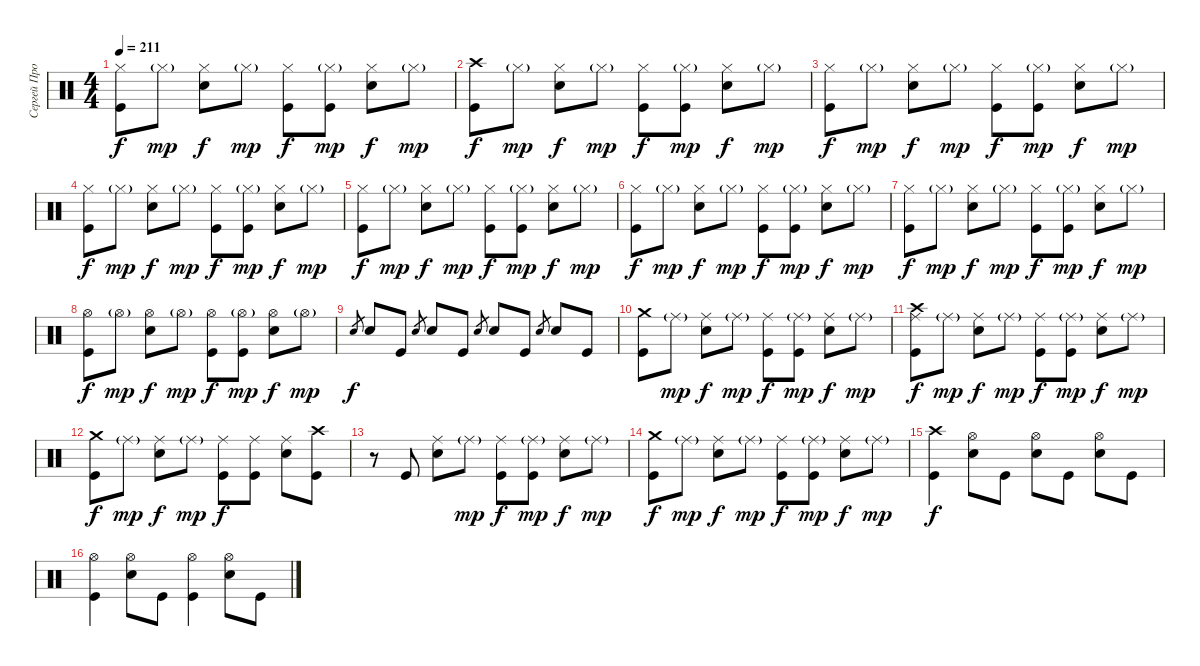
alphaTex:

\track ("Сергей Прокофьев" "Сергей Про") {instrument percussion}
\staff {score}
\articulation defaults
\ts (4 4)
\tempo 211
\clef neutral
\ks c
("Hi-Hat (closed)" "Kick (hit)").8{dy f} "Hi-Hat (closed)"{g}.8{dy mp} ("Hi-Hat (closed)" "Electric Snare (hit)").8{dy f} "Hi-Hat (closed)"{g}.8{dy mp} ("Hi-Hat (closed)" "Kick (hit)").8{dy f} ("Hi-Hat (closed)"{g} "Kick (hit)").8{dy mp} ("Hi-Hat (closed)" "Electric Snare (hit)").8{dy f} "Hi-Hat (closed)"{g}.8{dy mp} |
("Crash high (hit)" "Kick (hit)").8{dy f} "Hi-Hat (closed)"{g}.8{dy mp} ("Hi-Hat (closed)" "Electric Snare (hit)").8{dy f} "Hi-Hat (closed)"{g}.8{dy mp} ("Hi-Hat (closed)" "Kick (hit)").8{dy f} ("Hi-Hat (closed)"{g} "Kick (hit)").8{dy mp} ("Hi-Hat (closed)" "Electric Snare (hit)").8{dy f} "Hi-Hat (closed)"{g}.8{dy mp} |
("Hi-Hat (closed)" "Kick (hit)").8{dy f} "Hi-Hat (closed)"{g}.8{dy mp} ("Hi-Hat (closed)" "Electric Snare (hit)").8{dy f} "Hi-Hat (closed)"{g}.8{dy mp} ("Hi-Hat (closed)" "Kick (hit)").8{dy f} ("Hi-Hat (closed)"{g} "Kick (hit)").8{dy mp} ("Hi-Hat (closed)" "Electric Snare (hit)").8{dy f} "Hi-Hat (closed)"{g}.8{dy mp} |
("Hi-Hat (closed)" "Kick (hit)").8{dy f} "Hi-Hat (closed)"{g}.8{dy mp} ("Hi-Hat (closed)" "Electric Snare (hit)").8{dy f} "Hi-Hat (closed)"{g}.8{dy mp} ("Hi-Hat (closed)" "Kick (hit)").8{dy f} ("Hi-Hat (closed)"{g} "Kick (hit)").8{dy mp} ("Hi-Hat (closed)" "Electric Snare (hit)").8{dy f} "Hi-Hat (closed)"{g}.8{dy mp} |
("Hi-Hat (closed)" "Kick (hit)").8{dy f} "Hi-Hat (closed)"{g}.8{dy mp} ("Hi-Hat (closed)" "Electric Snare (hit)").8{dy f} "Hi-Hat (closed)"{g}.8{dy mp} ("Hi-Hat (closed)" "Kick (hit)").8{dy f} ("Hi-Hat (closed)"{g} "Kick (hit)").8{dy mp} ("Hi-Hat (closed)" "Electric Snare (hit)").8{dy f} "Hi-Hat (closed)"{g}.8{dy mp} |
("Hi-Hat (closed)" "Kick (hit)").8{dy f} "Hi-Hat (closed)"{g}.8{dy mp} ("Hi-Hat (closed)" "Electric Snare (hit)").8{dy f} "Hi-Hat (closed)"{g}.8{dy mp} ("Hi-Hat (closed)" "Kick (hit)").8{dy f} ("Hi-Hat (closed)"{g} "Kick (hit)").8{dy mp} ("Hi-Hat (closed)" "Electric Snare (hit)").8{dy f} "Hi-Hat (closed)"{g}.8{dy mp} |
("Hi-Hat (closed)" "Kick (hit)").8{dy f} "Hi-Hat (closed)"{g}.8{dy mp} ("Hi-Hat (closed)" "Electric Snare (hit)").8{dy f} "Hi-Hat (closed)"{g}.8{dy mp} ("Hi-Hat (closed)" "Kick (hit)").8{dy f} ("Hi-Hat (closed)"{g} "Kick (hit)").8{dy mp} ("Hi-Hat (closed)" "Electric Snare (hit)").8{dy f} "Hi-Hat (closed)"{g}.8{dy mp} |
("Hi-Hat (open)" "Kick (hit)").8{dy f} "Hi-Hat (open)"{g}.8{dy mp} ("Hi-Hat (open)" "Electric Snare (hit)").8{dy f} "Hi-Hat (open)"{g}.8{dy mp} ("Hi-Hat (open)" "Kick (hit)").8{dy f} ("Hi-Hat (open)"{g} "Kick (hit)").8{dy mp} ("Hi-Hat (open)" "Electric Snare (hit)").8{dy f} "Hi-Hat (open)"{g}.8{dy mp} |
"Electric Snare (hit)".8{gr dy f} "Electric Snare (hit)".8 "Kick (hit)".8 "Electric Snare (hit)".8{gr} "Electric Snare (hit)".8 "Kick (hit)".8 "Electric Snare (hit)".8{gr} "Electric Snare (hit)".8 "Kick (hit)".8 "Electric Snare (hit)".8{gr} "Electric Snare (hit)".8 "Kick (hit)".8 |
("Crash medium (hit)" "Kick (hit)").8 "Ride (middle)"{g}.8{dy mp} ("Ride (middle)" "Electric Snare (hit)").8{dy f} "Ride (middle)"{g}.8{dy mp} ("Ride (middle)" "Kick (hit)").8{dy f} ("Ride (middle)"{g} "Kick (hit)").8{dy mp} ("Ride (middle)" "Electric Snare (hit)").8{dy f} "Ride (middle)"{g}.8{dy mp} |
("Crash high (hit)" "Ride (middle)" "Kick (hit)").8{dy f} "Ride (middle)"{g}.8{dy mp} ("Ride (middle)" "Electric Snare (hit)").8{dy f} "Ride (middle)"{g}.8{dy mp} ("Ride (middle)" "Kick (hit)").8{dy f} ("Ride (middle)"{g} "Kick (hit)").8{dy mp} ("Ride (middle)" "Electric Snare (hit)").8{dy f} "Ride (middle)"{g}.8{dy mp} |
("Crash medium (hit)" "Kick (hit)").8{dy f} "Ride (middle)"{g}.8{dy mp} ("Ride (middle)" "Electric Snare (hit)").8{dy f} "Ride (middle)"{g}.8{dy mp} ("Ride (middle)" "Kick (hit)").8{dy f} ("Ride (middle)" "Kick (hit)").8 ("Ride (middle)" "Electric Snare (hit)").8 ("Crash high (hit)" "Kick (hit)").8 |
r.8 "Kick (hit)".8 ("Ride (middle)" "Electric Snare (hit)").8 "Ride (middle)"{g}.8{dy mp} ("Ride (middle)" "Kick (hit)").8{dy f} ("Ride (middle)"{g} "Kick (hit)").8{dy mp} ("Ride (middle)" "Electric Snare (hit)").8{dy f} "Ride (middle)"{g}.8{dy mp} |
("Crash medium (hit)" "Kick (hit)").8{dy f} "Ride (middle)"{g}.8{dy mp} ("Ride (middle)" "Electric Snare (hit)").8{dy f} "Ride (middle)"{g}.8{dy mp} ("Ride (middle)" "Kick (hit)").8{dy f} ("Ride (middle)"{g} "Kick (hit)").8{dy mp} ("Ride (middle)" "Electric Snare (hit)").8{dy f} "Ride (middle)"{g}.8{dy mp} |
("Crash high (hit)" "Kick (hit)").4{dy f} ("Hi-Hat (open)" "Electric Snare (hit)").8 "Kick (hit)".8 ("Hi-Hat (open)" "Electric Snare (hit)").8 "Kick (hit)".8 ("Hi-Hat (open)" "Electric Snare (hit)").8 "Kick (hit)".8 |
("Hi-Hat (open)" "Kick (hit)").4 ("Hi-Hat (open)" "Electric Snare (hit)").8 "Kick (hit)".8 ("Hi-Hat (open)" "Kick (hit)").4 ("Hi-Hat (open)" "Electric Snare (hit)").8 "Kick (hit)".8
